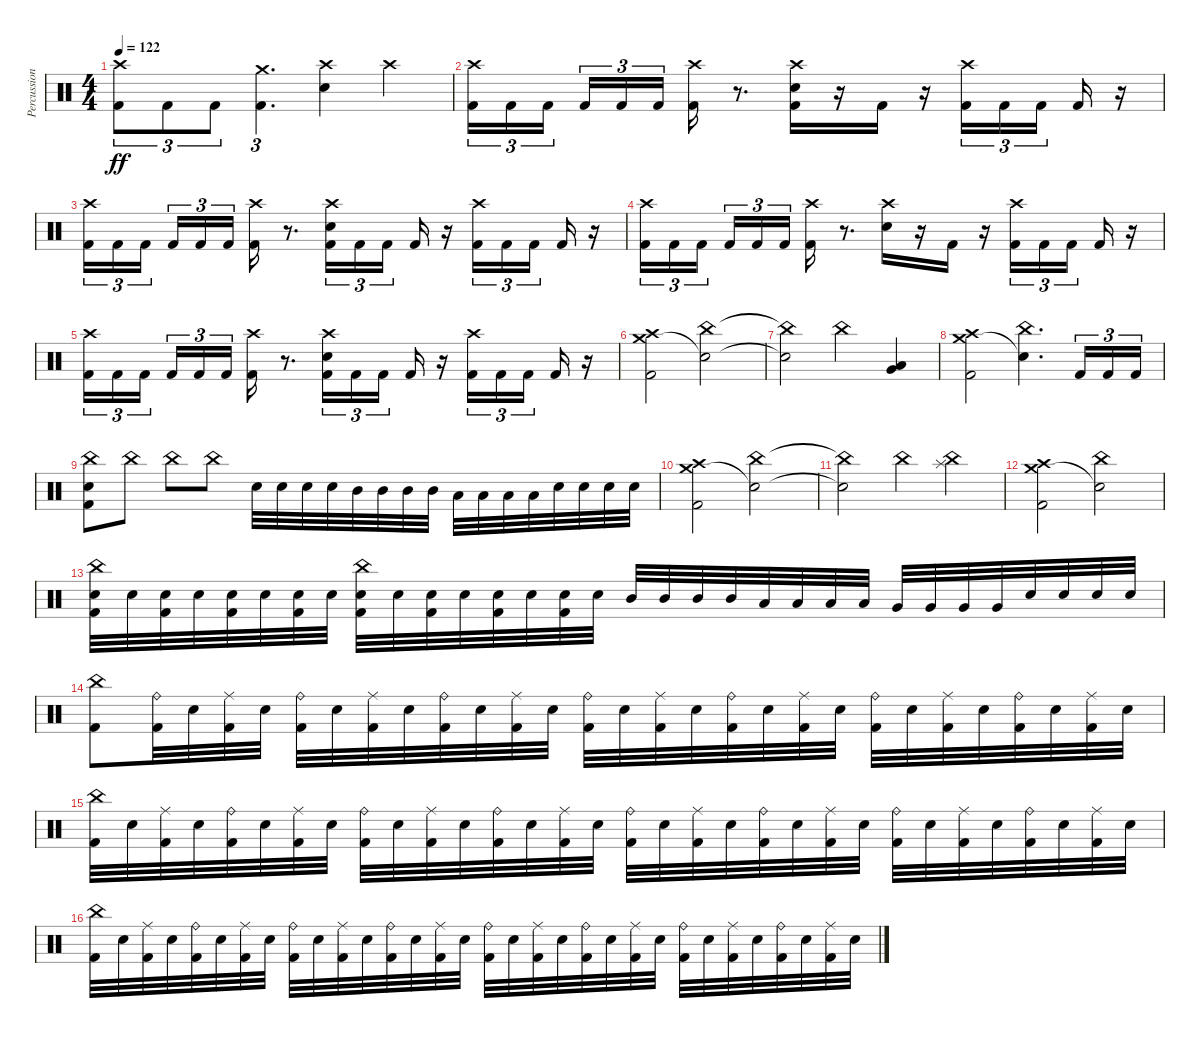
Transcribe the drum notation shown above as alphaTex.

\track ("Percussion" "Percussion") {instrument percussion}
\staff {score}
\articulation defaults
\ts (4 4)
\tempo 122
\clef neutral
\ks c
("Crash high (hit)" "Kick (hit) 2").8{tu (3 2) dy ff} "Kick (hit) 2".8{tu (3 2)} "Kick (hit) 2".8{tu (3 2)} ("Crash medium (hit)" "Kick (hit) 2").4{d tu (3 2)} ("Crash high (hit)" "Electric Snare (hit)").4 "Crash high (hit)".4 |
("Crash high (hit)" "Kick (hit) 2").16{tu (3 2)} "Kick (hit) 2".16{tu (3 2)} "Kick (hit) 2".16{tu (3 2) beam splitsecondary} "Kick (hit) 2".16{tu (3 2)} "Kick (hit) 2".16{tu (3 2)} "Kick (hit) 2".16{tu (3 2)} ("Crash high (hit)" "Kick (hit) 2").16 r.8{d} ("Crash high (hit)" "Electric Snare (hit)" "Kick (hit) 2").16 r.16 "Kick (hit) 2".16 r.16 ("Crash high (hit)" "Kick (hit) 2").16{tu (3 2)} "Kick (hit) 2".16{tu (3 2)} "Kick (hit) 2".16{tu (3 2) beam splitsecondary} "Kick (hit) 2".16 r.16 |
("Crash high (hit)" "Kick (hit) 2").16{tu (3 2)} "Kick (hit) 2".16{tu (3 2)} "Kick (hit) 2".16{tu (3 2) beam splitsecondary} "Kick (hit) 2".16{tu (3 2)} "Kick (hit) 2".16{tu (3 2)} "Kick (hit) 2".16{tu (3 2)} ("Crash high (hit)" "Kick (hit) 2").16 r.8{d} ("Crash high (hit)" "Electric Snare (hit)" "Kick (hit) 2").16{tu (3 2)} "Kick (hit) 2".16{tu (3 2)} "Kick (hit) 2".16{tu (3 2) beam splitsecondary} "Kick (hit) 2".16 r.16 ("Crash high (hit)" "Kick (hit) 2").16{tu (3 2)} "Kick (hit) 2".16{tu (3 2)} "Kick (hit) 2".16{tu (3 2) beam splitsecondary} "Kick (hit) 2".16 r.16 |
("Crash high (hit)" "Kick (hit) 2").16{tu (3 2)} "Kick (hit) 2".16{tu (3 2)} "Kick (hit) 2".16{tu (3 2) beam splitsecondary} "Kick (hit) 2".16{tu (3 2)} "Kick (hit) 2".16{tu (3 2)} "Kick (hit) 2".16{tu (3 2)} ("Crash high (hit)" "Kick (hit) 2").16 r.8{d} ("Crash high (hit)" "Electric Snare (hit)").16 r.16 "Kick (hit) 2".16 r.16 ("Crash high (hit)" "Kick (hit) 2").16{tu (3 2)} "Kick (hit) 2".16{tu (3 2)} "Kick (hit) 2".16{tu (3 2) beam splitsecondary} "Kick (hit) 2".16 r.16 |
("Crash high (hit)" "Kick (hit) 2").16{tu (3 2)} "Kick (hit) 2".16{tu (3 2)} "Kick (hit) 2".16{tu (3 2) beam splitsecondary} "Kick (hit) 2".16{tu (3 2)} "Kick (hit) 2".16{tu (3 2)} "Kick (hit) 2".16{tu (3 2)} ("Crash high (hit)" "Kick (hit) 2").16 r.8{d} ("Crash high (hit)" "Electric Snare (hit)" "Kick (hit) 2").16{tu (3 2)} "Kick (hit) 2".16{tu (3 2)} "Kick (hit) 2".16{tu (3 2) beam splitsecondary} "Kick (hit) 2".16 r.16 ("Crash high (hit)" "Kick (hit) 2").16{tu (3 2)} "Kick (hit) 2".16{tu (3 2)} "Kick (hit) 2".16{tu (3 2) beam splitsecondary} "Kick (hit) 2".16 r.16 |
("Crash high (hit)" "Crash medium (hit)" "Kick (hit) 2").2 ("China (hit)" "Snare (hit)"{t}).2 |
("China (hit)"{t} "Snare (hit)"{t}).2 "China (hit)".4 ("Low Tom (hit)" "Very Low Tom (hit)").4 |
("Crash high (hit)" "Crash medium (hit)" "Kick (hit) 2").2 ("China (hit)" "Snare (hit)"{t}).4{d} "Kick (hit) 2".16{tu (3 2)} "Kick (hit) 2".16{tu (3 2)} "Kick (hit) 2".16{tu (3 2)} |
("China (hit)" "Electric Snare (hit)" "Kick (hit) 2").8 "China (hit)".8 "China (hit)".8 "China (hit)".8 "Electric Snare (hit)".32 "Electric Snare (hit)".32 "Electric Snare (hit)".32 "Electric Snare (hit)".32 "Mid Tom (hit)".32 "Mid Tom (hit)".32 "Mid Tom (hit)".32 "Mid Tom (hit)".32 "Low Tom (hit)".32 "Low Tom (hit)".32 "Low Tom (hit)".32 "Low Tom (hit)".32 "Electric Snare (hit)".32 "Electric Snare (hit)".32 "Electric Snare (hit)".32 "Electric Snare (hit)".32 |
("Crash high (hit)" "Crash medium (hit)" "Kick (hit) 2").2 ("China (hit)" "Snare (hit)"{t}).2 |
("China (hit)"{t} "Snare (hit)"{t}).2 "China (hit)".4 ("China (hit)" "Splash (hit)").4 |
("Crash high (hit)" "Crash medium (hit)" "Kick (hit) 2").2 ("China (hit)" "Snare (hit)"{t}).2 |
("China (hit)" "Electric Snare (hit)" "Kick (hit) 2").32 "Electric Snare (hit)".32 ("Electric Snare (hit)" "Kick (hit) 2").32 "Electric Snare (hit)".32 ("Electric Snare (hit)" "Kick (hit) 2").32 "Electric Snare (hit)".32 ("Electric Snare (hit)" "Kick (hit) 2").32 "Electric Snare (hit)".32 ("China (hit)" "Electric Snare (hit)" "Kick (hit) 2").32 "Electric Snare (hit)".32 ("Electric Snare (hit)" "Kick (hit) 2").32 "Electric Snare (hit)".32 ("Electric Snare (hit)" "Kick (hit) 2").32 "Electric Snare (hit)".32 ("Electric Snare (hit)" "Kick (hit) 2").32 "Electric Snare (hit)".32 "Mid Tom (hit)".32 "Mid Tom (hit)".32 "Mid Tom (hit)".32 "Mid Tom (hit)".32 "Low Tom (hit)".32 "Low Tom (hit)".32 "Low Tom (hit)".32 "Low Tom (hit)".32 "Very Low Tom (hit)".32 "Very Low Tom (hit)".32 "Very Low Tom (hit)".32 "Very Low Tom (hit)".32 "Electric Snare (hit)".32 "Electric Snare (hit)".32 "Electric Snare (hit)".32 "Electric Snare (hit)".32 |
("China (hit)" "Kick (hit) 2").8 ("Ride (bell)" "Kick (hit) 2").32 "Electric Snare (hit)".32 ("Ride (middle)" "Kick (hit) 2").32 "Electric Snare (hit)".32 ("Ride (bell)" "Kick (hit) 2").32 "Electric Snare (hit)".32 ("Ride (middle)" "Kick (hit) 2").32 "Electric Snare (hit)".32 ("Ride (bell)" "Kick (hit) 2").32 "Electric Snare (hit)".32 ("Ride (middle)" "Kick (hit) 2").32 "Electric Snare (hit)".32 ("Ride (bell)" "Kick (hit) 2").32 "Electric Snare (hit)".32 ("Ride (middle)" "Kick (hit) 2").32 "Electric Snare (hit)".32 ("Ride (bell)" "Kick (hit) 2").32 "Electric Snare (hit)".32 ("Ride (middle)" "Kick (hit) 2").32 "Electric Snare (hit)".32 ("Ride (bell)" "Kick (hit) 2").32 "Electric Snare (hit)".32 ("Ride (middle)" "Kick (hit) 2").32 "Electric Snare (hit)".32 ("Ride (bell)" "Kick (hit) 2").32 "Electric Snare (hit)".32 ("Ride (middle)" "Kick (hit) 2").32 "Electric Snare (hit)".32 |
("China (hit)" "Kick (hit) 2").32 "Electric Snare (hit)".32 ("Ride (middle)" "Kick (hit) 2").32 "Electric Snare (hit)".32 ("Ride (bell)" "Kick (hit) 2").32 "Electric Snare (hit)".32 ("Ride (middle)" "Kick (hit) 2").32 "Electric Snare (hit)".32 ("Ride (bell)" "Kick (hit) 2").32 "Electric Snare (hit)".32 ("Ride (middle)" "Kick (hit) 2").32 "Electric Snare (hit)".32 ("Ride (bell)" "Kick (hit) 2").32 "Electric Snare (hit)".32 ("Ride (middle)" "Kick (hit) 2").32 "Electric Snare (hit)".32 ("Ride (bell)" "Kick (hit) 2").32 "Electric Snare (hit)".32 ("Ride (middle)" "Kick (hit) 2").32 "Electric Snare (hit)".32 ("Ride (bell)" "Kick (hit) 2").32 "Electric Snare (hit)".32 ("Ride (middle)" "Kick (hit) 2").32 "Electric Snare (hit)".32 ("Ride (bell)" "Kick (hit) 2").32 "Electric Snare (hit)".32 ("Ride (middle)" "Kick (hit) 2").32 "Electric Snare (hit)".32 ("Ride (bell)" "Kick (hit) 2").32 "Electric Snare (hit)".32 ("Ride (middle)" "Kick (hit) 2").32 "Electric Snare (hit)".32 |
("China (hit)" "Kick (hit) 2").32 "Electric Snare (hit)".32 ("Ride (middle)" "Kick (hit) 2").32 "Electric Snare (hit)".32 ("Ride (bell)" "Kick (hit) 2").32 "Electric Snare (hit)".32 ("Ride (middle)" "Kick (hit) 2").32 "Electric Snare (hit)".32 ("Ride (bell)" "Kick (hit) 2").32 "Electric Snare (hit)".32 ("Ride (middle)" "Kick (hit) 2").32 "Electric Snare (hit)".32 ("Ride (bell)" "Kick (hit) 2").32 "Electric Snare (hit)".32 ("Ride (middle)" "Kick (hit) 2").32 "Electric Snare (hit)".32 ("Ride (bell)" "Kick (hit) 2").32 "Electric Snare (hit)".32 ("Ride (middle)" "Kick (hit) 2").32 "Electric Snare (hit)".32 ("Ride (bell)" "Kick (hit) 2").32 "Electric Snare (hit)".32 ("Ride (middle)" "Kick (hit) 2").32 "Electric Snare (hit)".32 ("Ride (bell)" "Kick (hit) 2").32 "Electric Snare (hit)".32 ("Ride (middle)" "Kick (hit) 2").32 "Electric Snare (hit)".32 ("Ride (bell)" "Kick (hit) 2").32 "Electric Snare (hit)".32 ("Ride (middle)" "Kick (hit) 2").32 "Electric Snare (hit)".32
